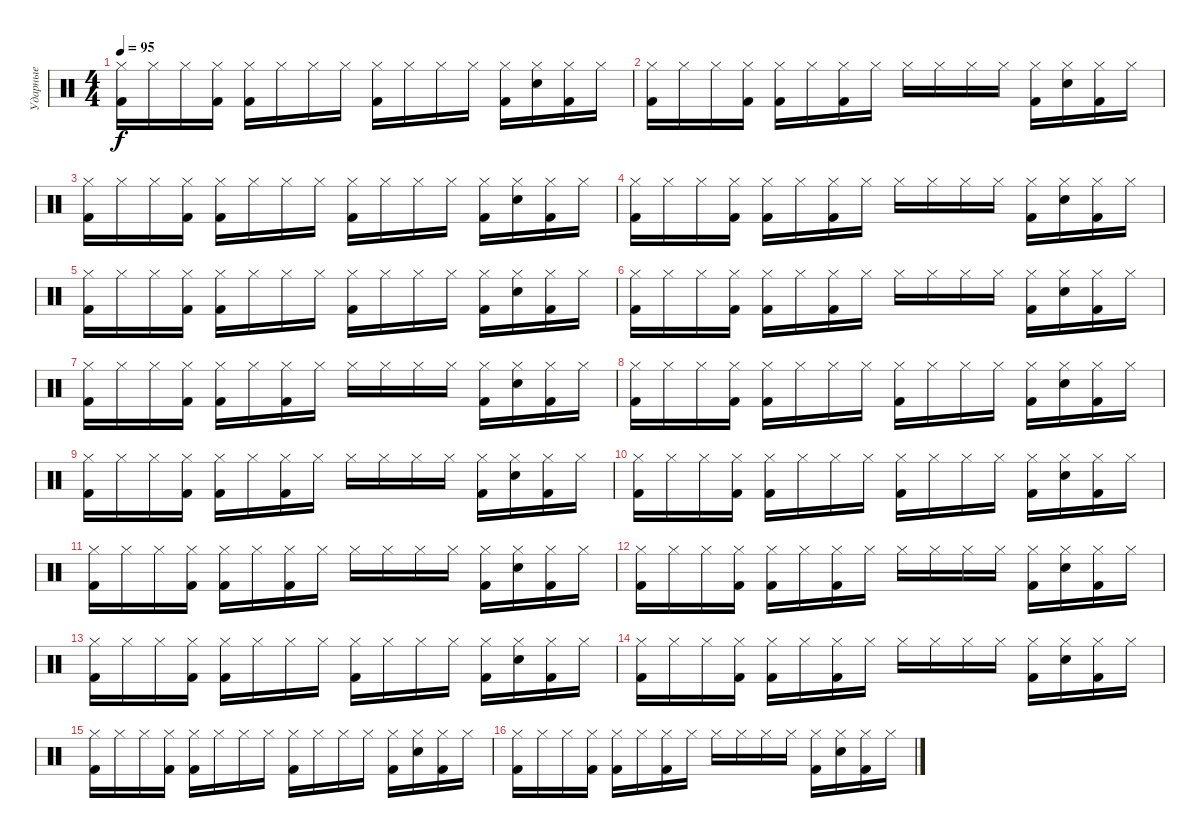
\track ("Ударные" "Ударные") {instrument percussion}
\staff {score}
\articulation defaults
\ts (4 4)
\tempo 95
\clef neutral
\ks c
("Hi-Hat (closed)" "Kick (hit) 2").16{dy f} "Hi-Hat (closed)".16 "Hi-Hat (closed)".16 ("Hi-Hat (closed)" "Kick (hit) 2").16 ("Hi-Hat (closed)" "Kick (hit) 2").16 "Hi-Hat (closed)".16 "Hi-Hat (closed)".16 "Hi-Hat (closed)".16 ("Hi-Hat (closed)" "Kick (hit) 2").16 "Hi-Hat (closed)".16 "Hi-Hat (closed)".16 "Hi-Hat (closed)".16 ("Hi-Hat (closed)" "Kick (hit) 2").16 ("Hi-Hat (closed)" "Snare (hit)").16 ("Hi-Hat (closed)" "Kick (hit) 2").16 "Hi-Hat (closed)".16 |
("Hi-Hat (closed)" "Kick (hit) 2").16 "Hi-Hat (closed)".16 "Hi-Hat (closed)".16 ("Hi-Hat (closed)" "Kick (hit) 2").16 ("Hi-Hat (closed)" "Kick (hit) 2").16 "Hi-Hat (closed)".16 ("Hi-Hat (closed)" "Kick (hit) 2").16 "Hi-Hat (closed)".16 "Hi-Hat (closed)".16 "Hi-Hat (closed)".16 "Hi-Hat (closed)".16 "Hi-Hat (closed)".16 ("Hi-Hat (closed)" "Kick (hit) 2").16 ("Hi-Hat (closed)" "Snare (hit)").16 ("Hi-Hat (closed)" "Kick (hit) 2").16 "Hi-Hat (closed)".16 |
("Hi-Hat (closed)" "Kick (hit) 2").16 "Hi-Hat (closed)".16 "Hi-Hat (closed)".16 ("Hi-Hat (closed)" "Kick (hit) 2").16 ("Hi-Hat (closed)" "Kick (hit) 2").16 "Hi-Hat (closed)".16 "Hi-Hat (closed)".16 "Hi-Hat (closed)".16 ("Hi-Hat (closed)" "Kick (hit) 2").16 "Hi-Hat (closed)".16 "Hi-Hat (closed)".16 "Hi-Hat (closed)".16 ("Hi-Hat (closed)" "Kick (hit) 2").16 ("Hi-Hat (closed)" "Snare (hit)").16 ("Hi-Hat (closed)" "Kick (hit) 2").16 "Hi-Hat (closed)".16 |
("Hi-Hat (closed)" "Kick (hit) 2").16 "Hi-Hat (closed)".16 "Hi-Hat (closed)".16 ("Hi-Hat (closed)" "Kick (hit) 2").16 ("Hi-Hat (closed)" "Kick (hit) 2").16 "Hi-Hat (closed)".16 ("Hi-Hat (closed)" "Kick (hit) 2").16 "Hi-Hat (closed)".16 "Hi-Hat (closed)".16 "Hi-Hat (closed)".16 "Hi-Hat (closed)".16 "Hi-Hat (closed)".16 ("Hi-Hat (closed)" "Kick (hit) 2").16 ("Hi-Hat (closed)" "Snare (hit)").16 ("Hi-Hat (closed)" "Kick (hit) 2").16 "Hi-Hat (closed)".16 |
("Hi-Hat (closed)" "Kick (hit) 2").16 "Hi-Hat (closed)".16 "Hi-Hat (closed)".16 ("Hi-Hat (closed)" "Kick (hit) 2").16 ("Hi-Hat (closed)" "Kick (hit) 2").16 "Hi-Hat (closed)".16 "Hi-Hat (closed)".16 "Hi-Hat (closed)".16 ("Hi-Hat (closed)" "Kick (hit) 2").16 "Hi-Hat (closed)".16 "Hi-Hat (closed)".16 "Hi-Hat (closed)".16 ("Hi-Hat (closed)" "Kick (hit) 2").16 ("Hi-Hat (closed)" "Snare (hit)").16 ("Hi-Hat (closed)" "Kick (hit) 2").16 "Hi-Hat (closed)".16 |
("Hi-Hat (closed)" "Kick (hit) 2").16 "Hi-Hat (closed)".16 "Hi-Hat (closed)".16 ("Hi-Hat (closed)" "Kick (hit) 2").16 ("Hi-Hat (closed)" "Kick (hit) 2").16 "Hi-Hat (closed)".16 ("Hi-Hat (closed)" "Kick (hit) 2").16 "Hi-Hat (closed)".16 "Hi-Hat (closed)".16 "Hi-Hat (closed)".16 "Hi-Hat (closed)".16 "Hi-Hat (closed)".16 ("Hi-Hat (closed)" "Kick (hit) 2").16 ("Hi-Hat (closed)" "Snare (hit)").16 ("Hi-Hat (closed)" "Kick (hit) 2").16 "Hi-Hat (closed)".16 |
("Hi-Hat (closed)" "Kick (hit) 2").16 "Hi-Hat (closed)".16 "Hi-Hat (closed)".16 ("Hi-Hat (closed)" "Kick (hit) 2").16 ("Hi-Hat (closed)" "Kick (hit) 2").16 "Hi-Hat (closed)".16 ("Hi-Hat (closed)" "Kick (hit) 2").16 "Hi-Hat (closed)".16 "Hi-Hat (closed)".16 "Hi-Hat (closed)".16 "Hi-Hat (closed)".16 "Hi-Hat (closed)".16 ("Hi-Hat (closed)" "Kick (hit) 2").16 ("Hi-Hat (closed)" "Snare (hit)").16 ("Hi-Hat (closed)" "Kick (hit) 2").16 "Hi-Hat (closed)".16 |
("Hi-Hat (closed)" "Kick (hit) 2").16 "Hi-Hat (closed)".16 "Hi-Hat (closed)".16 ("Hi-Hat (closed)" "Kick (hit) 2").16 ("Hi-Hat (closed)" "Kick (hit) 2").16 "Hi-Hat (closed)".16 "Hi-Hat (closed)".16 "Hi-Hat (closed)".16 ("Hi-Hat (closed)" "Kick (hit) 2").16 "Hi-Hat (closed)".16 "Hi-Hat (closed)".16 "Hi-Hat (closed)".16 ("Hi-Hat (closed)" "Kick (hit) 2").16 ("Hi-Hat (closed)" "Snare (hit)").16 ("Hi-Hat (closed)" "Kick (hit) 2").16 "Hi-Hat (closed)".16 |
("Hi-Hat (closed)" "Kick (hit) 2").16 "Hi-Hat (closed)".16 "Hi-Hat (closed)".16 ("Hi-Hat (closed)" "Kick (hit) 2").16 ("Hi-Hat (closed)" "Kick (hit) 2").16 "Hi-Hat (closed)".16 ("Hi-Hat (closed)" "Kick (hit) 2").16 "Hi-Hat (closed)".16 "Hi-Hat (closed)".16 "Hi-Hat (closed)".16 "Hi-Hat (closed)".16 "Hi-Hat (closed)".16 ("Hi-Hat (closed)" "Kick (hit) 2").16 ("Hi-Hat (closed)" "Snare (hit)").16 ("Hi-Hat (closed)" "Kick (hit) 2").16 "Hi-Hat (closed)".16 |
("Hi-Hat (closed)" "Kick (hit) 2").16 "Hi-Hat (closed)".16 "Hi-Hat (closed)".16 ("Hi-Hat (closed)" "Kick (hit) 2").16 ("Hi-Hat (closed)" "Kick (hit) 2").16 "Hi-Hat (closed)".16 "Hi-Hat (closed)".16 "Hi-Hat (closed)".16 ("Hi-Hat (closed)" "Kick (hit) 2").16 "Hi-Hat (closed)".16 "Hi-Hat (closed)".16 "Hi-Hat (closed)".16 ("Hi-Hat (closed)" "Kick (hit) 2").16 ("Hi-Hat (closed)" "Snare (hit)").16 ("Hi-Hat (closed)" "Kick (hit) 2").16 "Hi-Hat (closed)".16 |
("Hi-Hat (closed)" "Kick (hit) 2").16 "Hi-Hat (closed)".16 "Hi-Hat (closed)".16 ("Hi-Hat (closed)" "Kick (hit) 2").16 ("Hi-Hat (closed)" "Kick (hit) 2").16 "Hi-Hat (closed)".16 ("Hi-Hat (closed)" "Kick (hit) 2").16 "Hi-Hat (closed)".16 "Hi-Hat (closed)".16 "Hi-Hat (closed)".16 "Hi-Hat (closed)".16 "Hi-Hat (closed)".16 ("Hi-Hat (closed)" "Kick (hit) 2").16 ("Hi-Hat (closed)" "Snare (hit)").16 ("Hi-Hat (closed)" "Kick (hit) 2").16 "Hi-Hat (closed)".16 |
("Hi-Hat (closed)" "Kick (hit) 2").16 "Hi-Hat (closed)".16 "Hi-Hat (closed)".16 ("Hi-Hat (closed)" "Kick (hit) 2").16 ("Hi-Hat (closed)" "Kick (hit) 2").16 "Hi-Hat (closed)".16 ("Hi-Hat (closed)" "Kick (hit) 2").16 "Hi-Hat (closed)".16 "Hi-Hat (closed)".16 "Hi-Hat (closed)".16 "Hi-Hat (closed)".16 "Hi-Hat (closed)".16 ("Hi-Hat (closed)" "Kick (hit) 2").16 ("Hi-Hat (closed)" "Snare (hit)").16 ("Hi-Hat (closed)" "Kick (hit) 2").16 "Hi-Hat (closed)".16 |
("Hi-Hat (closed)" "Kick (hit) 2").16 "Hi-Hat (closed)".16 "Hi-Hat (closed)".16 ("Hi-Hat (closed)" "Kick (hit) 2").16 ("Hi-Hat (closed)" "Kick (hit) 2").16 "Hi-Hat (closed)".16 "Hi-Hat (closed)".16 "Hi-Hat (closed)".16 ("Hi-Hat (closed)" "Kick (hit) 2").16 "Hi-Hat (closed)".16 "Hi-Hat (closed)".16 "Hi-Hat (closed)".16 ("Hi-Hat (closed)" "Kick (hit) 2").16 ("Hi-Hat (closed)" "Snare (hit)").16 ("Hi-Hat (closed)" "Kick (hit) 2").16 "Hi-Hat (closed)".16 |
("Hi-Hat (closed)" "Kick (hit) 2").16 "Hi-Hat (closed)".16 "Hi-Hat (closed)".16 ("Hi-Hat (closed)" "Kick (hit) 2").16 ("Hi-Hat (closed)" "Kick (hit) 2").16 "Hi-Hat (closed)".16 ("Hi-Hat (closed)" "Kick (hit) 2").16 "Hi-Hat (closed)".16 "Hi-Hat (closed)".16 "Hi-Hat (closed)".16 "Hi-Hat (closed)".16 "Hi-Hat (closed)".16 ("Hi-Hat (closed)" "Kick (hit) 2").16 ("Hi-Hat (closed)" "Snare (hit)").16 ("Hi-Hat (closed)" "Kick (hit) 2").16 "Hi-Hat (closed)".16 |
("Hi-Hat (closed)" "Kick (hit) 2").16 "Hi-Hat (closed)".16 "Hi-Hat (closed)".16 ("Hi-Hat (closed)" "Kick (hit) 2").16 ("Hi-Hat (closed)" "Kick (hit) 2").16 "Hi-Hat (closed)".16 "Hi-Hat (closed)".16 "Hi-Hat (closed)".16 ("Hi-Hat (closed)" "Kick (hit) 2").16 "Hi-Hat (closed)".16 "Hi-Hat (closed)".16 "Hi-Hat (closed)".16 ("Hi-Hat (closed)" "Kick (hit) 2").16 ("Hi-Hat (closed)" "Snare (hit)").16 ("Hi-Hat (closed)" "Kick (hit) 2").16 "Hi-Hat (closed)".16 |
("Hi-Hat (closed)" "Kick (hit) 2").16 "Hi-Hat (closed)".16 "Hi-Hat (closed)".16 ("Hi-Hat (closed)" "Kick (hit) 2").16 ("Hi-Hat (closed)" "Kick (hit) 2").16 "Hi-Hat (closed)".16 ("Hi-Hat (closed)" "Kick (hit) 2").16 "Hi-Hat (closed)".16 "Hi-Hat (closed)".16 "Hi-Hat (closed)".16 "Hi-Hat (closed)".16 "Hi-Hat (closed)".16 ("Hi-Hat (closed)" "Kick (hit) 2").16 ("Hi-Hat (closed)" "Snare (hit)").16 ("Hi-Hat (closed)" "Kick (hit) 2").16 "Hi-Hat (closed)".16
